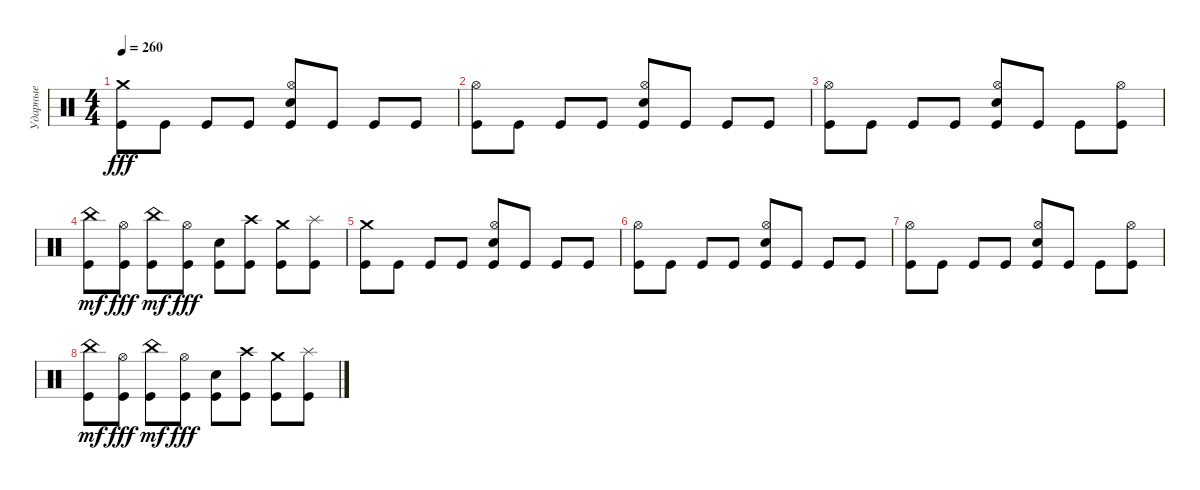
\track ("Ударные" "Ударные") {instrument percussion}
\staff {score}
\articulation defaults
\ts (4 4)
\tempo 260
\clef neutral
\ks c
("Kick (hit)" "Crash medium (hit)").8{dy fff} "Kick (hit)".8 "Kick (hit)".8 "Kick (hit)".8 ("Kick (hit)" "Hi-Hat (open)" "Electric Snare (hit)").8 "Kick (hit)".8 "Kick (hit)".8 "Kick (hit)".8 |
("Kick (hit)" "Hi-Hat (open)").8 "Kick (hit)".8 "Kick (hit)".8 "Kick (hit)".8 ("Kick (hit)" "Hi-Hat (open)" "Electric Snare (hit)").8 "Kick (hit)".8 "Kick (hit)".8 "Kick (hit)".8 |
("Kick (hit)" "Hi-Hat (open)").8 "Kick (hit)".8 "Kick (hit)".8 "Kick (hit)".8 ("Kick (hit)" "Hi-Hat (open)" "Electric Snare (hit)").8 "Kick (hit)".8 "Kick (hit)".8 ("Kick (hit)" "Hi-Hat (open)").8 |
("Kick (hit)" "China (hit)").8{dy mf} ("Kick (hit)" "Hi-Hat (open)").8{dy fff} ("Kick (hit)" "China (hit)").8{dy mf} ("Kick (hit)" "Hi-Hat (open)").8{dy fff} ("Kick (hit)" "Electric Snare (hit)").8 ("Kick (hit)" "Crash high (hit)").8 ("Kick (hit)" "Crash medium (hit)").8 ("Kick (hit)" "Splash (hit)").8 |
("Kick (hit)" "Crash medium (hit)").8 "Kick (hit)".8 "Kick (hit)".8 "Kick (hit)".8 ("Kick (hit)" "Hi-Hat (open)" "Electric Snare (hit)").8 "Kick (hit)".8 "Kick (hit)".8 "Kick (hit)".8 |
("Kick (hit)" "Hi-Hat (open)").8 "Kick (hit)".8 "Kick (hit)".8 "Kick (hit)".8 ("Kick (hit)" "Hi-Hat (open)" "Electric Snare (hit)").8 "Kick (hit)".8 "Kick (hit)".8 "Kick (hit)".8 |
("Kick (hit)" "Hi-Hat (open)").8 "Kick (hit)".8 "Kick (hit)".8 "Kick (hit)".8 ("Kick (hit)" "Hi-Hat (open)" "Electric Snare (hit)").8 "Kick (hit)".8 "Kick (hit)".8 ("Kick (hit)" "Hi-Hat (open)").8 |
("Kick (hit)" "China (hit)").8{dy mf} ("Kick (hit)" "Hi-Hat (open)").8{dy fff} ("Kick (hit)" "China (hit)").8{dy mf} ("Kick (hit)" "Hi-Hat (open)").8{dy fff} ("Kick (hit)" "Electric Snare (hit)").8 ("Kick (hit)" "Crash high (hit)").8 ("Kick (hit)" "Crash medium (hit)").8 ("Kick (hit)" "Splash (hit)").8
